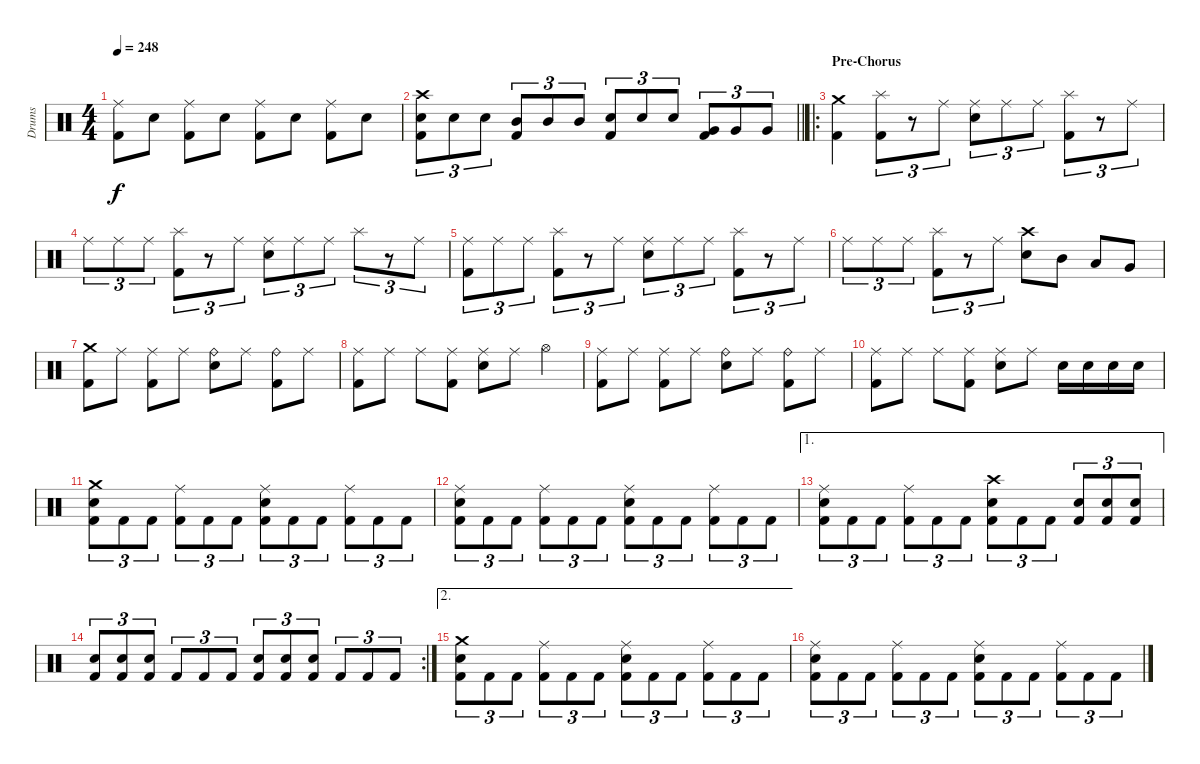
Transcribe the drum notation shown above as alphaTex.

\track ("Drums" "Drums") {instrument percussion}
\staff {score}
\articulation defaults
\ts (4 4)
\tempo 248
\clef neutral
\ks c
("Ride (middle)" "Kick (hit) 2").8{dy f} "Snare (hit) 2".8 ("Ride (middle)" "Kick (hit) 2").8 "Snare (hit) 2".8 ("Ride (middle)" "Kick (hit) 2").8 "Snare (hit) 2".8 ("Ride (middle)" "Kick (hit) 2").8 "Snare (hit) 2".8 |
\barLineRight lightlight
("Crash high (hit)" "Snare (hit) 2" "Kick (hit) 2").8{tu (3 2)} "Snare (hit) 2".8{tu (3 2)} "Snare (hit) 2".8{tu (3 2)} ("Mid Tom (hit)" "Kick (hit) 2").8{tu (3 2)} "Mid Tom (hit)".8{tu (3 2)} "Mid Tom (hit)".8{tu (3 2)} ("Snare (hit) 2" "Kick (hit) 2").8{tu (3 2)} "Snare (hit) 2".8{tu (3 2)} "Snare (hit) 2".8{tu (3 2)} ("Very Low Tom (hit)" "Kick (hit) 2").8{tu (3 2)} "Very Low Tom (hit)".8{tu (3 2)} "Very Low Tom (hit)".8{tu (3 2)} |
\ro
\section ("" "Pre-Chorus")
("Crash medium (hit)" "Kick (hit) 2").4 ("Splash (hit)" "Kick (hit) 2").8{tu (3 2)} r.8{tu (3 2)} "Ride (middle)".8{tu (3 2)} ("Ride (middle)" "Snare (hit) 2").8{tu (3 2)} "Ride (middle)".8{tu (3 2)} "Ride (middle)".8{tu (3 2)} ("Splash (hit)" "Kick (hit) 2").8{tu (3 2)} r.8{tu (3 2)} "Ride (middle)".8{tu (3 2)} |
"Ride (middle)".8{tu (3 2)} "Ride (middle)".8{tu (3 2)} "Ride (middle)".8{tu (3 2)} ("Splash (hit)" "Kick (hit) 2").8{tu (3 2)} r.8{tu (3 2)} "Ride (middle)".8{tu (3 2)} ("Ride (middle)" "Snare (hit) 2").8{tu (3 2)} "Ride (middle)".8{tu (3 2)} "Ride (middle)".8{tu (3 2)} "Splash (hit)".8{tu (3 2)} r.8{tu (3 2)} "Ride (middle)".8{tu (3 2)} |
("Ride (middle)" "Kick (hit) 2").8{tu (3 2)} "Ride (middle)".8{tu (3 2)} "Ride (middle)".8{tu (3 2)} ("Splash (hit)" "Kick (hit) 2").8{tu (3 2)} r.8{tu (3 2)} "Ride (middle)".8{tu (3 2)} ("Ride (middle)" "Snare (hit) 2").8{tu (3 2)} "Ride (middle)".8{tu (3 2)} "Ride (middle)".8{tu (3 2)} ("Splash (hit)" "Kick (hit) 2").8{tu (3 2)} r.8{tu (3 2)} "Ride (middle)".8{tu (3 2)} |
"Ride (middle)".8{tu (3 2)} "Ride (middle)".8{tu (3 2)} "Ride (middle)".8{tu (3 2)} ("Splash (hit)" "Kick (hit) 2").8{tu (3 2)} r.8{tu (3 2)} "Ride (middle)".8{tu (3 2)} ("Crash high (hit)" "Snare (hit) 2").8 "Mid Tom (hit)".8 "Low Tom (hit)".8 "Very Low Tom (hit)".8 |
("Crash medium (hit)" "Kick (hit) 2").8 "Ride (middle)".8 ("Ride (middle)" "Kick (hit) 2").8 "Ride (middle)".8 ("Ride (bell)" "Snare (hit) 2").8 "Ride (middle)".8 ("Ride (bell)" "Kick (hit) 2").8 "Ride (middle)".8 |
("Ride (middle)" "Kick (hit) 2").8 "Ride (middle)".8 "Ride (middle)".8 ("Ride (middle)" "Kick (hit) 2").8 ("Ride (middle)" "Snare (hit) 2").8 "Ride (middle)".8 "Hi-Hat (open)".4 |
("Ride (middle)" "Kick (hit) 2").8 "Ride (middle)".8 ("Ride (middle)" "Kick (hit) 2").8 "Ride (middle)".8 ("Ride (bell)" "Snare (hit) 2").8 "Ride (middle)".8 ("Ride (bell)" "Kick (hit) 2").8 "Ride (middle)".8 |
("Ride (middle)" "Kick (hit) 2").8 "Ride (middle)".8 "Ride (middle)".8 ("Ride (middle)" "Kick (hit) 2").8 ("Ride (middle)" "Snare (hit) 2").8 "Ride (middle)".8 "Snare (hit) 2".16 "Snare (hit) 2".16 "Snare (hit) 2".16 "Snare (hit) 2".16 |
("Crash medium (hit)" "Snare (hit) 2" "Kick (hit) 2").8{tu (3 2)} "Kick (hit) 2".8{tu (3 2)} "Kick (hit) 2".8{tu (3 2)} ("Ride (middle)" "Kick (hit) 2").8{tu (3 2)} "Kick (hit) 2".8{tu (3 2)} "Kick (hit) 2".8{tu (3 2)} ("Ride (middle)" "Snare (hit) 2" "Kick (hit) 2").8{tu (3 2)} "Kick (hit) 2".8{tu (3 2)} "Kick (hit) 2".8{tu (3 2)} ("Ride (middle)" "Kick (hit) 2").8{tu (3 2)} "Kick (hit) 2".8{tu (3 2)} "Kick (hit) 2".8{tu (3 2)} |
("Ride (middle)" "Snare (hit) 2" "Kick (hit) 2").8{tu (3 2)} "Kick (hit) 2".8{tu (3 2)} "Kick (hit) 2".8{tu (3 2)} ("Ride (middle)" "Kick (hit) 2").8{tu (3 2)} "Kick (hit) 2".8{tu (3 2)} "Kick (hit) 2".8{tu (3 2)} ("Ride (middle)" "Snare (hit) 2" "Kick (hit) 2").8{tu (3 2)} "Kick (hit) 2".8{tu (3 2)} "Kick (hit) 2".8{tu (3 2)} ("Ride (middle)" "Kick (hit) 2").8{tu (3 2)} "Kick (hit) 2".8{tu (3 2)} "Kick (hit) 2".8{tu (3 2)} |
\ae 1
("Ride (middle)" "Snare (hit) 2" "Kick (hit) 2").8{tu (3 2)} "Kick (hit) 2".8{tu (3 2)} "Kick (hit) 2".8{tu (3 2)} ("Ride (middle)" "Kick (hit) 2").8{tu (3 2)} "Kick (hit) 2".8{tu (3 2)} "Kick (hit) 2".8{tu (3 2)} ("Crash high (hit)" "Snare (hit) 2" "Kick (hit) 2").8{tu (3 2)} "Kick (hit) 2".8{tu (3 2)} "Kick (hit) 2".8{tu (3 2)} ("Snare (hit) 2" "Kick (hit) 2").8{tu (3 2)} ("Snare (hit) 2" "Kick (hit) 2").8{tu (3 2)} ("Snare (hit) 2" "Kick (hit) 2").8{tu (3 2)} |
\rc 2
("Snare (hit) 2" "Kick (hit) 2").8{tu (3 2)} ("Snare (hit) 2" "Kick (hit) 2").8{tu (3 2)} ("Snare (hit) 2" "Kick (hit) 2").8{tu (3 2)} "Kick (hit) 2".8{tu (3 2)} "Kick (hit) 2".8{tu (3 2)} "Kick (hit) 2".8{tu (3 2)} ("Snare (hit) 2" "Kick (hit) 2").8{tu (3 2)} ("Snare (hit) 2" "Kick (hit) 2").8{tu (3 2)} ("Snare (hit) 2" "Kick (hit) 2").8{tu (3 2)} "Kick (hit) 2".8{tu (3 2)} "Kick (hit) 2".8{tu (3 2)} "Kick (hit) 2".8{tu (3 2)} |
\ae 2
("Crash medium (hit)" "Snare (hit) 2" "Kick (hit) 2").8{tu (3 2)} "Kick (hit) 2".8{tu (3 2)} "Kick (hit) 2".8{tu (3 2)} ("Ride (middle)" "Kick (hit) 2").8{tu (3 2)} "Kick (hit) 2".8{tu (3 2)} "Kick (hit) 2".8{tu (3 2)} ("Ride (middle)" "Snare (hit) 2" "Kick (hit) 2").8{tu (3 2)} "Kick (hit) 2".8{tu (3 2)} "Kick (hit) 2".8{tu (3 2)} ("Ride (middle)" "Kick (hit) 2").8{tu (3 2)} "Kick (hit) 2".8{tu (3 2)} "Kick (hit) 2".8{tu (3 2)} |
("Ride (middle)" "Snare (hit) 2" "Kick (hit) 2").8{tu (3 2)} "Kick (hit) 2".8{tu (3 2)} "Kick (hit) 2".8{tu (3 2)} ("Ride (middle)" "Kick (hit) 2").8{tu (3 2)} "Kick (hit) 2".8{tu (3 2)} "Kick (hit) 2".8{tu (3 2)} ("Ride (middle)" "Snare (hit) 2" "Kick (hit) 2").8{tu (3 2)} "Kick (hit) 2".8{tu (3 2)} "Kick (hit) 2".8{tu (3 2)} ("Ride (middle)" "Kick (hit) 2").8{tu (3 2)} "Kick (hit) 2".8{tu (3 2)} "Kick (hit) 2".8{tu (3 2)}
